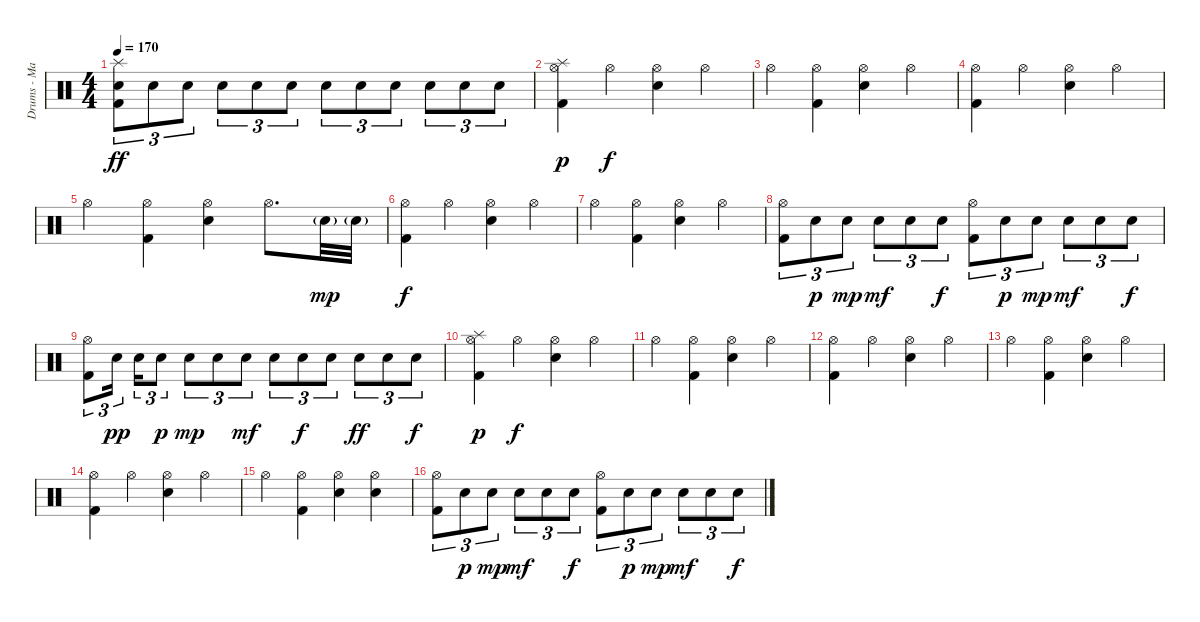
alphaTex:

\track ("Drums - Mario Duplantier" "Drums - Ma") {instrument percussion}
\staff {score}
\articulation defaults
\ts (4 4)
\tempo 170
\clef neutral
\ks c
("Splash (hit)" "Snare (hit) 2" "Kick (hit) 2").8{tu (3 2) dy ff} "Snare (hit) 2".8{tu (3 2)} "Snare (hit) 2".8{tu (3 2)} "Snare (hit) 2".8{tu (3 2)} "Snare (hit) 2".8{tu (3 2)} "Snare (hit) 2".8{tu (3 2)} "Snare (hit) 2".8{tu (3 2)} "Snare (hit) 2".8{tu (3 2)} "Snare (hit) 2".8{tu (3 2)} "Snare (hit) 2".8{tu (3 2)} "Snare (hit) 2".8{tu (3 2)} "Snare (hit) 2".8{tu (3 2)} |
("Splash (hit)" "Hi-Hat (open)" "Kick (hit) 2").4{dy p} "Hi-Hat (open)".4{dy f} ("Hi-Hat (open)" "Snare (hit) 2").4 "Hi-Hat (open)".4 |
"Hi-Hat (open)".4 ("Hi-Hat (open)" "Kick (hit) 2").4 ("Hi-Hat (open)" "Snare (hit) 2").4 "Hi-Hat (open)".4 |
("Hi-Hat (open)" "Kick (hit) 2").4 "Hi-Hat (open)".4 ("Hi-Hat (open)" "Snare (hit) 2").4 "Hi-Hat (open)".4 |
"Hi-Hat (open)".4 ("Hi-Hat (open)" "Kick (hit) 2").4 ("Hi-Hat (open)" "Snare (hit) 2").4 "Hi-Hat (open)".8{d} "Snare (hit) 2"{g}.32{dy mp} "Snare (hit) 2"{g}.32 |
("Hi-Hat (open)" "Kick (hit) 2").4{dy f} "Hi-Hat (open)".4 ("Hi-Hat (open)" "Snare (hit) 2").4 "Hi-Hat (open)".4 |
"Hi-Hat (open)".4 ("Hi-Hat (open)" "Kick (hit) 2").4 ("Hi-Hat (open)" "Snare (hit) 2").4 "Hi-Hat (open)".4 |
("Hi-Hat (open)" "Kick (hit) 2").8{tu (3 2)} "Snare (hit) 2".8{tu (3 2) dy p} "Snare (hit) 2".8{tu (3 2) dy mp} "Snare (hit) 2".8{tu (3 2) dy mf} "Snare (hit) 2".8{tu (3 2)} "Snare (hit) 2".8{tu (3 2) dy f} ("Hi-Hat (open)" "Kick (hit) 2").8{tu (3 2)} "Snare (hit) 2".8{tu (3 2) dy p} "Snare (hit) 2".8{tu (3 2) dy mp} "Snare (hit) 2".8{tu (3 2) dy mf} "Snare (hit) 2".8{tu (3 2)} "Snare (hit) 2".8{tu (3 2) dy f} |
("Hi-Hat (open)" "Kick (hit) 2").8{tu (3 2)} "Snare (hit) 2".16{tu (3 2) dy pp beam splitsecondary} "Snare (hit) 2".16{tu (3 2)} "Snare (hit) 2".8{tu (3 2) dy p} "Snare (hit) 2".8{tu (3 2) dy mp} "Snare (hit) 2".8{tu (3 2)} "Snare (hit) 2".8{tu (3 2) dy mf} "Snare (hit) 2".8{tu (3 2)} "Snare (hit) 2".8{tu (3 2) dy f} "Snare (hit) 2".8{tu (3 2)} "Snare (hit) 2".8{tu (3 2) dy ff} "Snare (hit) 2".8{tu (3 2)} "Snare (hit) 2".8{tu (3 2) dy f} |
("Splash (hit)" "Hi-Hat (open)" "Kick (hit) 2").4{dy p} "Hi-Hat (open)".4{dy f} ("Hi-Hat (open)" "Snare (hit) 2").4 "Hi-Hat (open)".4 |
"Hi-Hat (open)".4 ("Hi-Hat (open)" "Kick (hit) 2").4 ("Hi-Hat (open)" "Snare (hit) 2").4 "Hi-Hat (open)".4 |
("Hi-Hat (open)" "Kick (hit) 2").4 "Hi-Hat (open)".4 ("Hi-Hat (open)" "Snare (hit) 2").4 "Hi-Hat (open)".4 |
"Hi-Hat (open)".4 ("Hi-Hat (open)" "Kick (hit) 2").4 ("Hi-Hat (open)" "Snare (hit) 2").4 "Hi-Hat (open)".4 |
("Hi-Hat (open)" "Kick (hit) 2").4 "Hi-Hat (open)".4 ("Hi-Hat (open)" "Snare (hit) 2").4 "Hi-Hat (open)".4 |
"Hi-Hat (open)".4 ("Hi-Hat (open)" "Kick (hit) 2").4 ("Hi-Hat (open)" "Snare (hit) 2").4 ("Hi-Hat (open)" "Snare (hit) 2").4 |
("Hi-Hat (open)" "Kick (hit) 2").8{tu (3 2)} "Snare (hit) 2".8{tu (3 2) dy p} "Snare (hit) 2".8{tu (3 2) dy mp} "Snare (hit) 2".8{tu (3 2) dy mf} "Snare (hit) 2".8{tu (3 2)} "Snare (hit) 2".8{tu (3 2) dy f} ("Hi-Hat (open)" "Kick (hit) 2").8{tu (3 2)} "Snare (hit) 2".8{tu (3 2) dy p} "Snare (hit) 2".8{tu (3 2) dy mp} "Snare (hit) 2".8{tu (3 2) dy mf} "Snare (hit) 2".8{tu (3 2)} "Snare (hit) 2".8{tu (3 2) dy f}
